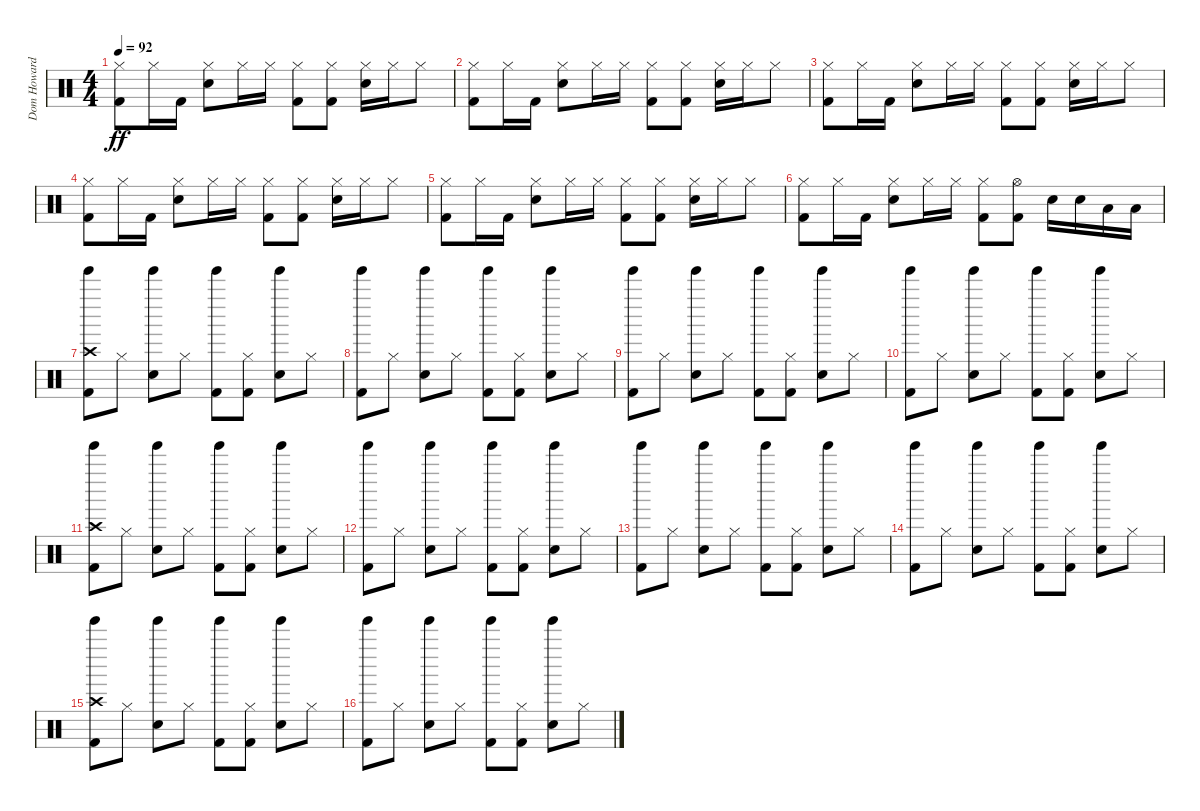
\track ("Dom Howard" "Dom Howard") {instrument percussion}
\staff {score}
\articulation defaults
\ts (4 4)
\tempo 92
\clef neutral
\ks c
("Hi-Hat (closed)" "Kick (hit) 2").8{dy ff} "Hi-Hat (closed)".16 "Kick (hit) 2".16 ("Hi-Hat (closed)" "Electric Snare (hit)").8 "Hi-Hat (closed)".16 "Hi-Hat (closed)".16 ("Hi-Hat (closed)" "Kick (hit) 2").8 ("Hi-Hat (closed)" "Kick (hit) 2").8 ("Hi-Hat (closed)" "Electric Snare (hit)").16 "Hi-Hat (closed)".16 "Hi-Hat (closed)".8 |
("Hi-Hat (closed)" "Kick (hit) 2").8 "Hi-Hat (closed)".16 "Kick (hit) 2".16 ("Hi-Hat (closed)" "Electric Snare (hit)").8 "Hi-Hat (closed)".16 "Hi-Hat (closed)".16 ("Hi-Hat (closed)" "Kick (hit) 2").8 ("Hi-Hat (closed)" "Kick (hit) 2").8 ("Hi-Hat (closed)" "Electric Snare (hit)").16 "Hi-Hat (closed)".16 "Hi-Hat (closed)".8 |
("Hi-Hat (closed)" "Kick (hit) 2").8 "Hi-Hat (closed)".16 "Kick (hit) 2".16 ("Hi-Hat (closed)" "Electric Snare (hit)").8 "Hi-Hat (closed)".16 "Hi-Hat (closed)".16 ("Hi-Hat (closed)" "Kick (hit) 2").8 ("Hi-Hat (closed)" "Kick (hit) 2").8 ("Hi-Hat (closed)" "Electric Snare (hit)").16 "Hi-Hat (closed)".16 "Hi-Hat (closed)".8 |
("Hi-Hat (closed)" "Kick (hit) 2").8 "Hi-Hat (closed)".16 "Kick (hit) 2".16 ("Hi-Hat (closed)" "Electric Snare (hit)").8 "Hi-Hat (closed)".16 "Hi-Hat (closed)".16 ("Hi-Hat (closed)" "Kick (hit) 2").8 ("Hi-Hat (closed)" "Kick (hit) 2").8 ("Hi-Hat (closed)" "Electric Snare (hit)").16 "Hi-Hat (closed)".16 "Hi-Hat (closed)".8 |
("Hi-Hat (closed)" "Kick (hit) 2").8 "Hi-Hat (closed)".16 "Kick (hit) 2".16 ("Hi-Hat (closed)" "Electric Snare (hit)").8 "Hi-Hat (closed)".16 "Hi-Hat (closed)".16 ("Hi-Hat (closed)" "Kick (hit) 2").8 ("Hi-Hat (closed)" "Kick (hit) 2").8 ("Hi-Hat (closed)" "Electric Snare (hit)").16 "Hi-Hat (closed)".16 "Hi-Hat (closed)".8 |
("Hi-Hat (closed)" "Kick (hit) 2").8 "Hi-Hat (closed)".16 "Kick (hit) 2".16 ("Hi-Hat (closed)" "Electric Snare (hit)").8 "Hi-Hat (closed)".16 "Hi-Hat (closed)".16 ("Hi-Hat (closed)" "Kick (hit) 2").8 ("Hi-Hat (open)" "Kick (hit) 2").8 "Electric Snare (hit)".16 "Electric Snare (hit)".16 "Low Floor Tom (hit)".16 "Low Floor Tom (hit)".16 |
("Tinkle Bell (hit)" "Crash high (hit)" "Kick (hit) 2").8 "Hi-Hat (closed)".8 ("Tinkle Bell (hit)" "Electric Snare (hit)").8 "Hi-Hat (closed)".8 ("Tinkle Bell (hit)" "Kick (hit) 2").8 ("Hi-Hat (closed)" "Kick (hit) 2").8 ("Tinkle Bell (hit)" "Electric Snare (hit)").8 "Hi-Hat (closed)".8 |
("Tinkle Bell (hit)" "Kick (hit) 2").8 "Hi-Hat (closed)".8 ("Tinkle Bell (hit)" "Electric Snare (hit)").8 "Hi-Hat (closed)".8 ("Tinkle Bell (hit)" "Kick (hit) 2").8 ("Hi-Hat (closed)" "Kick (hit) 2").8 ("Tinkle Bell (hit)" "Electric Snare (hit)").8 "Hi-Hat (closed)".8 |
("Tinkle Bell (hit)" "Kick (hit) 2").8 "Hi-Hat (closed)".8 ("Tinkle Bell (hit)" "Electric Snare (hit)").8 "Hi-Hat (closed)".8 ("Tinkle Bell (hit)" "Kick (hit) 2").8 ("Hi-Hat (closed)" "Kick (hit) 2").8 ("Tinkle Bell (hit)" "Electric Snare (hit)").8 "Hi-Hat (closed)".8 |
("Tinkle Bell (hit)" "Kick (hit) 2").8 "Hi-Hat (closed)".8 ("Tinkle Bell (hit)" "Electric Snare (hit)").8 "Hi-Hat (closed)".8 ("Tinkle Bell (hit)" "Kick (hit) 2").8 ("Hi-Hat (closed)" "Kick (hit) 2").8 ("Tinkle Bell (hit)" "Electric Snare (hit)").8 "Hi-Hat (closed)".8 |
("Tinkle Bell (hit)" "Crash high (hit)" "Kick (hit) 2").8 "Hi-Hat (closed)".8 ("Tinkle Bell (hit)" "Electric Snare (hit)").8 "Hi-Hat (closed)".8 ("Tinkle Bell (hit)" "Kick (hit) 2").8 ("Hi-Hat (closed)" "Kick (hit) 2").8 ("Tinkle Bell (hit)" "Electric Snare (hit)").8 "Hi-Hat (closed)".8 |
("Tinkle Bell (hit)" "Kick (hit) 2").8 "Hi-Hat (closed)".8 ("Tinkle Bell (hit)" "Electric Snare (hit)").8 "Hi-Hat (closed)".8 ("Tinkle Bell (hit)" "Kick (hit) 2").8 ("Hi-Hat (closed)" "Kick (hit) 2").8 ("Tinkle Bell (hit)" "Electric Snare (hit)").8 "Hi-Hat (closed)".8 |
("Tinkle Bell (hit)" "Kick (hit) 2").8 "Hi-Hat (closed)".8 ("Tinkle Bell (hit)" "Electric Snare (hit)").8 "Hi-Hat (closed)".8 ("Tinkle Bell (hit)" "Kick (hit) 2").8 ("Hi-Hat (closed)" "Kick (hit) 2").8 ("Tinkle Bell (hit)" "Electric Snare (hit)").8 "Hi-Hat (closed)".8 |
("Tinkle Bell (hit)" "Kick (hit) 2").8 "Hi-Hat (closed)".8 ("Tinkle Bell (hit)" "Electric Snare (hit)").8 "Hi-Hat (closed)".8 ("Tinkle Bell (hit)" "Kick (hit) 2").8 ("Hi-Hat (closed)" "Kick (hit) 2").8 ("Tinkle Bell (hit)" "Electric Snare (hit)").8 "Hi-Hat (closed)".8 |
("Tinkle Bell (hit)" "Crash high (hit)" "Kick (hit) 2").8 "Hi-Hat (closed)".8 ("Tinkle Bell (hit)" "Electric Snare (hit)").8 "Hi-Hat (closed)".8 ("Tinkle Bell (hit)" "Kick (hit) 2").8 ("Hi-Hat (closed)" "Kick (hit) 2").8 ("Tinkle Bell (hit)" "Electric Snare (hit)").8 "Hi-Hat (closed)".8 |
("Tinkle Bell (hit)" "Kick (hit) 2").8 "Hi-Hat (closed)".8 ("Tinkle Bell (hit)" "Electric Snare (hit)").8 "Hi-Hat (closed)".8 ("Tinkle Bell (hit)" "Kick (hit) 2").8 ("Hi-Hat (closed)" "Kick (hit) 2").8 ("Tinkle Bell (hit)" "Electric Snare (hit)").8 "Hi-Hat (closed)".8
